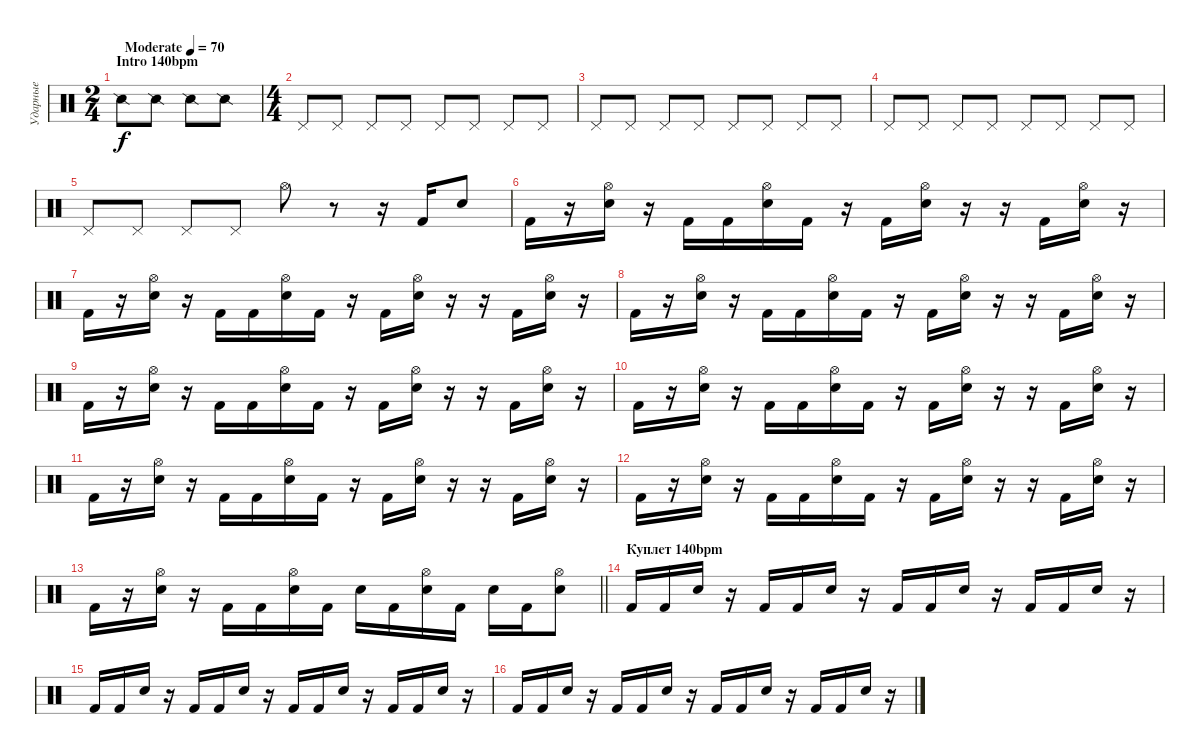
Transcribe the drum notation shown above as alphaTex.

\track ("Ударные" "Ударные") {instrument percussion}
\staff {score}
\articulation defaults
\ts (2 4)
\section ("" "Intro 140bpm")
\tempo (70 "Moderate")
\tempo 140
\tempo (70 "Moderate")
\clef neutral
\ks c "Snare (side stick) 2".8{dy f} "Snare (side stick) 2".8 "Snare (side stick) 2".8 "Snare (side stick) 2".8
|
\ts (4 4)
"Pedal Hi-Hat (hit)".8 "Pedal Hi-Hat (hit)".8 "Pedal Hi-Hat (hit)".8 "Pedal Hi-Hat (hit)".8 "Pedal Hi-Hat (hit)".8 "Pedal Hi-Hat (hit)".8 "Pedal Hi-Hat (hit)".8 "Pedal Hi-Hat (hit)".8 |
"Pedal Hi-Hat (hit)".8 "Pedal Hi-Hat (hit)".8 "Pedal Hi-Hat (hit)".8 "Pedal Hi-Hat (hit)".8 "Pedal Hi-Hat (hit)".8 "Pedal Hi-Hat (hit)".8 "Pedal Hi-Hat (hit)".8 "Pedal Hi-Hat (hit)".8 |
"Pedal Hi-Hat (hit)".8 "Pedal Hi-Hat (hit)".8 "Pedal Hi-Hat (hit)".8 "Pedal Hi-Hat (hit)".8 "Pedal Hi-Hat (hit)".8 "Pedal Hi-Hat (hit)".8 "Pedal Hi-Hat (hit)".8 "Pedal Hi-Hat (hit)".8 |
"Pedal Hi-Hat (hit)".8 "Pedal Hi-Hat (hit)".8 "Pedal Hi-Hat (hit)".8 "Pedal Hi-Hat (hit)".8 "Hi-Hat (open)".8 r.8 r.16 "Kick (hit) 2".16 "Electric Snare (hit)".8 |
"Kick (hit) 2".16 r.16 ("Electric Snare (hit)" "Hi-Hat (open)").16 r.16 "Kick (hit) 2".16 "Kick (hit) 2".16 ("Electric Snare (hit)" "Hi-Hat (open)").16 "Kick (hit) 2".16 r.16 "Kick (hit) 2".16 ("Electric Snare (hit)" "Hi-Hat (open)").16 r.16 r.16 "Kick (hit) 2".16 ("Electric Snare (hit)" "Hi-Hat (open)").16 r.16 |
"Kick (hit) 2".16 r.16 ("Electric Snare (hit)" "Hi-Hat (open)").16 r.16 "Kick (hit) 2".16 "Kick (hit) 2".16 ("Electric Snare (hit)" "Hi-Hat (open)").16 "Kick (hit) 2".16 r.16 "Kick (hit) 2".16 ("Electric Snare (hit)" "Hi-Hat (open)").16 r.16 r.16 "Kick (hit) 2".16 ("Electric Snare (hit)" "Hi-Hat (open)").16 r.16 |
"Kick (hit) 2".16 r.16 ("Electric Snare (hit)" "Hi-Hat (open)").16 r.16 "Kick (hit) 2".16 "Kick (hit) 2".16 ("Electric Snare (hit)" "Hi-Hat (open)").16 "Kick (hit) 2".16 r.16 "Kick (hit) 2".16 ("Electric Snare (hit)" "Hi-Hat (open)").16 r.16 r.16 "Kick (hit) 2".16 ("Electric Snare (hit)" "Hi-Hat (open)").16 r.16 |
"Kick (hit) 2".16 r.16 ("Electric Snare (hit)" "Hi-Hat (open)").16 r.16 "Kick (hit) 2".16 "Kick (hit) 2".16 ("Electric Snare (hit)" "Hi-Hat (open)").16 "Kick (hit) 2".16 r.16 "Kick (hit) 2".16 ("Electric Snare (hit)" "Hi-Hat (open)").16 r.16 r.16 "Kick (hit) 2".16 ("Electric Snare (hit)" "Hi-Hat (open)").16 r.16 |
"Kick (hit) 2".16 r.16 ("Electric Snare (hit)" "Hi-Hat (open)").16 r.16 "Kick (hit) 2".16 "Kick (hit) 2".16 ("Electric Snare (hit)" "Hi-Hat (open)").16 "Kick (hit) 2".16 r.16 "Kick (hit) 2".16 ("Electric Snare (hit)" "Hi-Hat (open)").16 r.16 r.16 "Kick (hit) 2".16 ("Electric Snare (hit)" "Hi-Hat (open)").16 r.16 |
"Kick (hit) 2".16 r.16 ("Electric Snare (hit)" "Hi-Hat (open)").16 r.16 "Kick (hit) 2".16 "Kick (hit) 2".16 ("Electric Snare (hit)" "Hi-Hat (open)").16 "Kick (hit) 2".16 r.16 "Kick (hit) 2".16 ("Electric Snare (hit)" "Hi-Hat (open)").16 r.16 r.16 "Kick (hit) 2".16 ("Electric Snare (hit)" "Hi-Hat (open)").16 r.16 |
"Kick (hit) 2".16 r.16 ("Electric Snare (hit)" "Hi-Hat (open)").16 r.16 "Kick (hit) 2".16 "Kick (hit) 2".16 ("Electric Snare (hit)" "Hi-Hat (open)").16 "Kick (hit) 2".16 r.16 "Kick (hit) 2".16 ("Electric Snare (hit)" "Hi-Hat (open)").16 r.16 r.16 "Kick (hit) 2".16 ("Electric Snare (hit)" "Hi-Hat (open)").16 r.16 |
\barLineRight lightlight "Kick (hit) 2".16
r.16 ("Electric Snare (hit)" "Hi-Hat (open)").16 r.16 "Kick (hit) 2".16 "Kick (hit) 2".16 ("Electric Snare (hit)" "Hi-Hat (open)").16 "Kick (hit) 2".16 "Electric Snare (hit)".16 "Kick (hit) 2".16 ("Electric Snare (hit)" "Hi-Hat (open)").16 "Kick (hit) 2".16 "Electric Snare (hit)".16 "Kick (hit) 2".16 ("Electric Snare (hit)" "Hi-Hat (open)").8 |
\section ("" "Куплет 140bpm")
"Kick (hit) 2".16 "Kick (hit) 2".16 "Electric Snare (hit)".16 r.16 "Kick (hit) 2".16 "Kick (hit) 2".16 "Electric Snare (hit)".16 r.16 "Kick (hit) 2".16 "Kick (hit) 2".16 "Electric Snare (hit)".16 r.16 "Kick (hit) 2".16 "Kick (hit) 2".16 "Electric Snare (hit)".16 r.16 |
"Kick (hit) 2".16 "Kick (hit) 2".16 "Electric Snare (hit)".16 r.16 "Kick (hit) 2".16 "Kick (hit) 2".16 "Electric Snare (hit)".16 r.16 "Kick (hit) 2".16 "Kick (hit) 2".16 "Electric Snare (hit)".16 r.16 "Kick (hit) 2".16 "Kick (hit) 2".16 "Electric Snare (hit)".16 r.16 |
"Kick (hit) 2".16 "Kick (hit) 2".16 "Electric Snare (hit)".16 r.16 "Kick (hit) 2".16 "Kick (hit) 2".16 "Electric Snare (hit)".16 r.16 "Kick (hit) 2".16 "Kick (hit) 2".16 "Electric Snare (hit)".16 r.16 "Kick (hit) 2".16 "Kick (hit) 2".16 "Electric Snare (hit)".16 r.16
